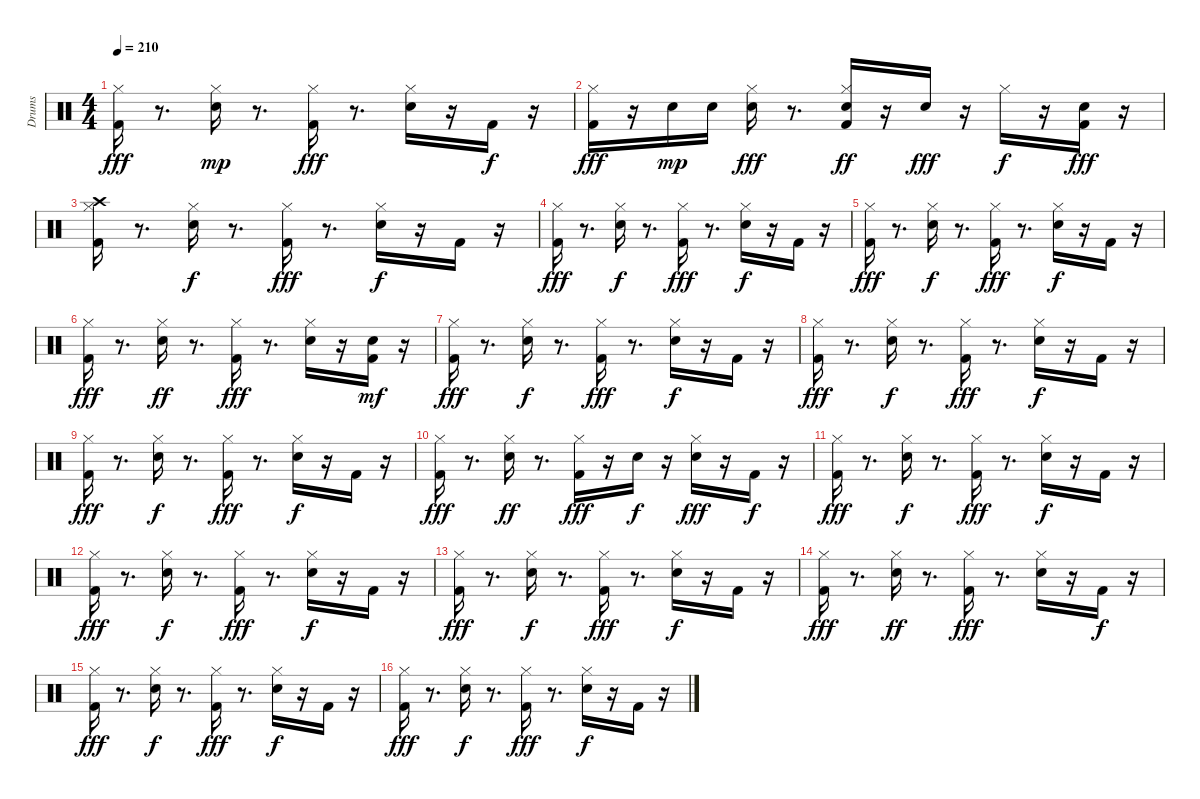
\track ("Drums " "Drums ") {instrument percussion}
\staff {score}
\articulation defaults
\ts (4 4)
\tempo 210
\clef neutral
\ks c
("Kick (hit) 2" "Hi-Hat (closed)").16{dy fff} r.8{d} ("Snare (hit) 2" "Hi-Hat (closed)").16{dy mp} r.8{d} ("Kick (hit) 2" "Hi-Hat (closed)").16{dy fff} r.8{d} ("Snare (hit) 2" "Hi-Hat (closed)").16 r.16 "Kick (hit) 2".16{dy f} r.16 |
("Kick (hit) 2" "Hi-Hat (closed)").16{dy fff} r.16 "Snare (hit) 2".16{dy mp} "Snare (hit) 2".16 ("Snare (hit) 2" "Hi-Hat (closed)").16{dy fff} r.8{d} ("Kick (hit) 2" "Snare (hit) 2" "Hi-Hat (closed)").16{dy ff} r.16 "Snare (hit) 2".16{dy fff} r.16 "Hi-Hat (closed)".16{dy f} r.16 ("Kick (hit) 2" "Snare (hit) 2").16{dy fff} r.16 |
("Kick (hit) 2" "Hi-Hat (closed)" "Crash high (hit)").16 r.8{d} ("Snare (hit) 2" "Hi-Hat (closed)").16{dy f} r.8{d} ("Kick (hit) 2" "Hi-Hat (closed)").16{dy fff} r.8{d} ("Snare (hit) 2" "Hi-Hat (closed)").16{dy f} r.16 "Kick (hit) 2".16 r.16 |
("Kick (hit) 2" "Hi-Hat (closed)").16{dy fff} r.8{d} ("Snare (hit) 2" "Hi-Hat (closed)").16{dy f} r.8{d} ("Kick (hit) 2" "Hi-Hat (closed)").16{dy fff} r.8{d} ("Snare (hit) 2" "Hi-Hat (closed)").16{dy f} r.16 "Kick (hit) 2".16 r.16 |
("Kick (hit) 2" "Hi-Hat (closed)").16{dy fff} r.8{d} ("Snare (hit) 2" "Hi-Hat (closed)").16{dy f} r.8{d} ("Kick (hit) 2" "Hi-Hat (closed)").16{dy fff} r.8{d} ("Snare (hit) 2" "Hi-Hat (closed)").16{dy f} r.16 "Kick (hit) 2".16 r.16 |
("Kick (hit) 2" "Hi-Hat (closed)").16{dy fff} r.8{d} ("Snare (hit) 2" "Hi-Hat (closed)").16{dy ff} r.8{d} ("Kick (hit) 2" "Hi-Hat (closed)").16{dy fff} r.8{d} ("Snare (hit) 2" "Hi-Hat (closed)").16 r.16 ("Kick (hit) 2" "Snare (hit) 2").16{dy mf} r.16 |
("Kick (hit) 2" "Hi-Hat (closed)").16{dy fff} r.8{d} ("Snare (hit) 2" "Hi-Hat (closed)").16{dy f} r.8{d} ("Kick (hit) 2" "Hi-Hat (closed)").16{dy fff} r.8{d} ("Snare (hit) 2" "Hi-Hat (closed)").16{dy f} r.16 "Kick (hit) 2".16 r.16 |
("Kick (hit) 2" "Hi-Hat (closed)").16{dy fff} r.8{d} ("Snare (hit) 2" "Hi-Hat (closed)").16{dy f} r.8{d} ("Kick (hit) 2" "Hi-Hat (closed)").16{dy fff} r.8{d} ("Snare (hit) 2" "Hi-Hat (closed)").16{dy f} r.16 "Kick (hit) 2".16 r.16 |
("Kick (hit) 2" "Hi-Hat (closed)").16{dy fff} r.8{d} ("Snare (hit) 2" "Hi-Hat (closed)").16{dy f} r.8{d} ("Kick (hit) 2" "Hi-Hat (closed)").16{dy fff} r.8{d} ("Snare (hit) 2" "Hi-Hat (closed)").16{dy f} r.16 "Kick (hit) 2".16 r.16 |
("Kick (hit) 2" "Hi-Hat (closed)").16{dy fff} r.8{d} ("Snare (hit) 2" "Hi-Hat (closed)").16{dy ff} r.8{d} ("Kick (hit) 2" "Hi-Hat (closed)").16{dy fff} r.16 "Snare (hit) 2".16{dy f} r.16 ("Snare (hit) 2" "Hi-Hat (closed)").16{dy fff} r.16 "Kick (hit) 2".16{dy f} r.16 |
("Kick (hit) 2" "Hi-Hat (closed)").16{dy fff} r.8{d} ("Snare (hit) 2" "Hi-Hat (closed)").16{dy f} r.8{d} ("Kick (hit) 2" "Hi-Hat (closed)").16{dy fff} r.8{d} ("Snare (hit) 2" "Hi-Hat (closed)").16{dy f} r.16 "Kick (hit) 2".16 r.16 |
("Kick (hit) 2" "Hi-Hat (closed)").16{dy fff} r.8{d} ("Snare (hit) 2" "Hi-Hat (closed)").16{dy f} r.8{d} ("Kick (hit) 2" "Hi-Hat (closed)").16{dy fff} r.8{d} ("Snare (hit) 2" "Hi-Hat (closed)").16{dy f} r.16 "Kick (hit) 2".16 r.16 |
("Kick (hit) 2" "Hi-Hat (closed)").16{dy fff} r.8{d} ("Snare (hit) 2" "Hi-Hat (closed)").16{dy f} r.8{d} ("Kick (hit) 2" "Hi-Hat (closed)").16{dy fff} r.8{d} ("Snare (hit) 2" "Hi-Hat (closed)").16{dy f} r.16 "Kick (hit) 2".16 r.16 |
("Kick (hit) 2" "Hi-Hat (closed)").16{dy fff} r.8{d} ("Snare (hit) 2" "Hi-Hat (closed)").16{dy ff} r.8{d} ("Kick (hit) 2" "Hi-Hat (closed)").16{dy fff} r.8{d} ("Snare (hit) 2" "Hi-Hat (closed)").16 r.16 "Kick (hit) 2".16{dy f} r.16 |
("Kick (hit) 2" "Hi-Hat (closed)").16{dy fff} r.8{d} ("Snare (hit) 2" "Hi-Hat (closed)").16{dy f} r.8{d} ("Kick (hit) 2" "Hi-Hat (closed)").16{dy fff} r.8{d} ("Snare (hit) 2" "Hi-Hat (closed)").16{dy f} r.16 "Kick (hit) 2".16 r.16 |
("Kick (hit) 2" "Hi-Hat (closed)").16{dy fff} r.8{d} ("Snare (hit) 2" "Hi-Hat (closed)").16{dy f} r.8{d} ("Kick (hit) 2" "Hi-Hat (closed)").16{dy fff} r.8{d} ("Snare (hit) 2" "Hi-Hat (closed)").16{dy f} r.16 "Kick (hit) 2".16 r.16
